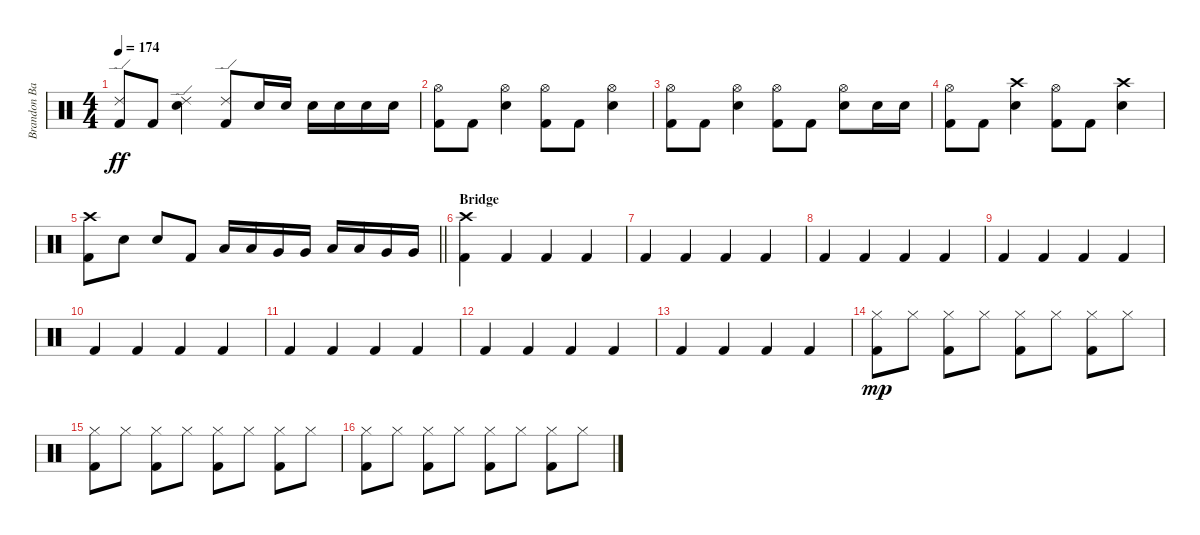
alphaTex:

\track ("Brandon Barnes - Drums" "Brandon Ba") {instrument percussion}
\staff {score}
\articulation defaults
\ts (4 4)
\tempo 174
\clef neutral
\ks c
("Ride (edge) 2" "Kick (hit) 2").8{dy ff} "Kick (hit) 2".8 ("Snare (hit) 2" "Ride (edge) 2").4 ("Ride (edge) 2" "Kick (hit) 2").8 "Snare (hit) 2".16 "Snare (hit) 2".16 "Snare (hit) 2".16 "Snare (hit) 2".16 "Snare (hit) 2".16 "Snare (hit) 2".16 |
("Hi-Hat (open)" "Kick (hit) 2").8 "Kick (hit) 2".8 ("Snare (hit) 2" "Hi-Hat (open)").4 ("Hi-Hat (open)" "Kick (hit) 2").8 "Kick (hit) 2".8 ("Snare (hit) 2" "Hi-Hat (open)").4 |
("Hi-Hat (open)" "Kick (hit) 2").8 "Kick (hit) 2".8 ("Snare (hit) 2" "Hi-Hat (open)").4 ("Hi-Hat (open)" "Kick (hit) 2").8 "Kick (hit) 2".8 ("Snare (hit) 2" "Hi-Hat (open)").8 "Snare (hit) 2".16 "Snare (hit) 2".16 |
("Hi-Hat (open)" "Kick (hit) 2").8 "Kick (hit) 2".8 ("Snare (hit) 2" "Crash high (hit)").4 ("Hi-Hat (open)" "Kick (hit) 2").8 "Kick (hit) 2".8 ("Snare (hit) 2" "Crash high (hit)").4 |
\barLineRight lightlight
("Kick (hit) 2" "Crash high (hit)").8 "Snare (hit) 2".8 "Snare (hit) 2".8 "Kick (hit) 2".8 "Low Tom (hit)".16 "Low Tom (hit)".16 "Very Low Tom (hit)".16 "Very Low Tom (hit)".16 "Low Tom (hit)".16 "Low Tom (hit)".16 "Very Low Tom (hit)".16 "Very Low Tom (hit)".16 |
\section ("" "Bridge")
("Crash high (hit)" "Kick (hit) 2").4 "Kick (hit) 2".4 "Kick (hit) 2".4 "Kick (hit) 2".4 |
"Kick (hit) 2".4 "Kick (hit) 2".4 "Kick (hit) 2".4 "Kick (hit) 2".4 |
"Kick (hit) 2".4 "Kick (hit) 2".4 "Kick (hit) 2".4 "Kick (hit) 2".4 |
"Kick (hit) 2".4 "Kick (hit) 2".4 "Kick (hit) 2".4 "Kick (hit) 2".4 |
"Kick (hit) 2".4 "Kick (hit) 2".4 "Kick (hit) 2".4 "Kick (hit) 2".4 |
"Kick (hit) 2".4 "Kick (hit) 2".4 "Kick (hit) 2".4 "Kick (hit) 2".4 |
"Kick (hit) 2".4 "Kick (hit) 2".4 "Kick (hit) 2".4 "Kick (hit) 2".4 |
"Kick (hit) 2".4 "Kick (hit) 2".4 "Kick (hit) 2".4 "Kick (hit) 2".4 |
("Hi-Hat (closed)" "Kick (hit) 2").8{dy mp} "Hi-Hat (closed)".8 ("Hi-Hat (closed)" "Kick (hit) 2").8 "Hi-Hat (closed)".8 ("Hi-Hat (closed)" "Kick (hit) 2").8 "Hi-Hat (closed)".8 ("Hi-Hat (closed)" "Kick (hit) 2").8 "Hi-Hat (closed)".8 |
("Hi-Hat (closed)" "Kick (hit) 2").8 "Hi-Hat (closed)".8 ("Hi-Hat (closed)" "Kick (hit) 2").8 "Hi-Hat (closed)".8 ("Hi-Hat (closed)" "Kick (hit) 2").8 "Hi-Hat (closed)".8 ("Hi-Hat (closed)" "Kick (hit) 2").8 "Hi-Hat (closed)".8 |
("Hi-Hat (closed)" "Kick (hit) 2").8 "Hi-Hat (closed)".8 ("Hi-Hat (closed)" "Kick (hit) 2").8 "Hi-Hat (closed)".8 ("Hi-Hat (closed)" "Kick (hit) 2").8 "Hi-Hat (closed)".8 ("Hi-Hat (closed)" "Kick (hit) 2").8 "Hi-Hat (closed)".8
